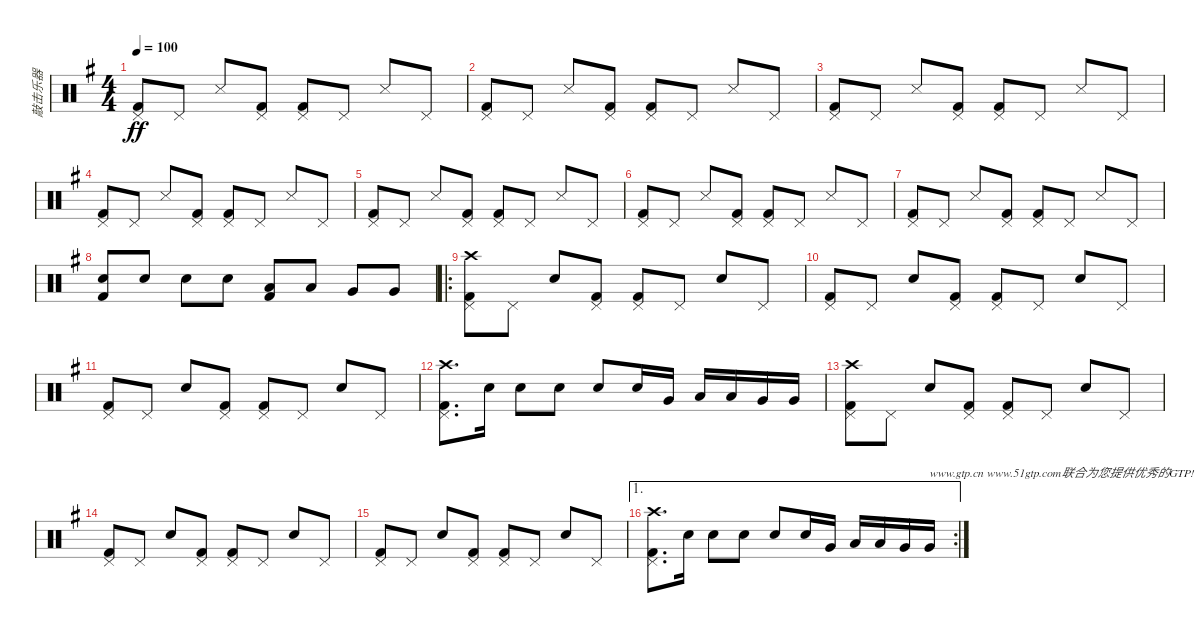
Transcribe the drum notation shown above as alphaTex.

\track ("敲击乐器" "敲击乐器") {instrument percussion}
\staff {score}
\articulation defaults
\ts (4 4)
\tempo 100
\clef neutral
\ks g
("Pedal Hi-Hat (hit)" "Kick (hit) 2").8{dy ff} "Pedal Hi-Hat (hit)".8 "Metronome (hit)".8 ("Pedal Hi-Hat (hit)" "Kick (hit) 2").8 ("Pedal Hi-Hat (hit)" "Kick (hit) 2").8 "Pedal Hi-Hat (hit)".8 "Metronome (hit)".8 "Pedal Hi-Hat (hit)".8 |
("Pedal Hi-Hat (hit)" "Kick (hit) 2").8 "Pedal Hi-Hat (hit)".8 "Metronome (hit)".8 ("Pedal Hi-Hat (hit)" "Kick (hit) 2").8 ("Pedal Hi-Hat (hit)" "Kick (hit) 2").8 "Pedal Hi-Hat (hit)".8 "Metronome (hit)".8 "Pedal Hi-Hat (hit)".8 |
("Pedal Hi-Hat (hit)" "Kick (hit) 2").8 "Pedal Hi-Hat (hit)".8 "Metronome (hit)".8 ("Pedal Hi-Hat (hit)" "Kick (hit) 2").8 ("Pedal Hi-Hat (hit)" "Kick (hit) 2").8 "Pedal Hi-Hat (hit)".8 "Metronome (hit)".8 "Pedal Hi-Hat (hit)".8 |
("Pedal Hi-Hat (hit)" "Kick (hit) 2").8 "Pedal Hi-Hat (hit)".8 "Metronome (hit)".8 ("Pedal Hi-Hat (hit)" "Kick (hit) 2").8 ("Pedal Hi-Hat (hit)" "Kick (hit) 2").8 "Pedal Hi-Hat (hit)".8 "Metronome (hit)".8 "Pedal Hi-Hat (hit)".8 |
("Pedal Hi-Hat (hit)" "Kick (hit) 2").8 "Pedal Hi-Hat (hit)".8 "Metronome (hit)".8 ("Pedal Hi-Hat (hit)" "Kick (hit) 2").8 ("Pedal Hi-Hat (hit)" "Kick (hit) 2").8 "Pedal Hi-Hat (hit)".8 "Metronome (hit)".8 "Pedal Hi-Hat (hit)".8 |
("Pedal Hi-Hat (hit)" "Kick (hit) 2").8 "Pedal Hi-Hat (hit)".8 "Metronome (hit)".8 ("Pedal Hi-Hat (hit)" "Kick (hit) 2").8 ("Pedal Hi-Hat (hit)" "Kick (hit) 2").8 "Pedal Hi-Hat (hit)".8 "Metronome (hit)".8 "Pedal Hi-Hat (hit)".8 |
("Pedal Hi-Hat (hit)" "Kick (hit) 2").8 "Pedal Hi-Hat (hit)".8 "Metronome (hit)".8 ("Pedal Hi-Hat (hit)" "Kick (hit) 2").8 ("Pedal Hi-Hat (hit)" "Kick (hit) 2").8 "Pedal Hi-Hat (hit)".8 "Metronome (hit)".8 "Pedal Hi-Hat (hit)".8 |
("Snare (hit) 2" "Kick (hit) 2").8 "Snare (hit) 2".8 "Snare (hit) 2".8 "Snare (hit) 2".8 ("Low Floor Tom (hit)" "Kick (hit) 2").8 "Low Floor Tom (hit)".8 "Very Low Tom (hit)".8 "Very Low Tom (hit)".8 |
\ro
("Crash high (hit)" "Pedal Hi-Hat (hit)" "Kick (hit) 2").8 "Pedal Hi-Hat (hit)".8 "Snare (hit) 2".8 ("Pedal Hi-Hat (hit)" "Kick (hit) 2").8 ("Pedal Hi-Hat (hit)" "Kick (hit) 2").8 "Pedal Hi-Hat (hit)".8 "Snare (hit) 2".8 "Pedal Hi-Hat (hit)".8 |
("Pedal Hi-Hat (hit)" "Kick (hit) 2").8 "Pedal Hi-Hat (hit)".8 "Snare (hit) 2".8 ("Pedal Hi-Hat (hit)" "Kick (hit) 2").8 ("Pedal Hi-Hat (hit)" "Kick (hit) 2").8 "Pedal Hi-Hat (hit)".8 "Snare (hit) 2".8 "Pedal Hi-Hat (hit)".8 |
("Pedal Hi-Hat (hit)" "Kick (hit) 2").8 "Pedal Hi-Hat (hit)".8 "Snare (hit) 2".8 ("Pedal Hi-Hat (hit)" "Kick (hit) 2").8 ("Pedal Hi-Hat (hit)" "Kick (hit) 2").8 "Pedal Hi-Hat (hit)".8 "Snare (hit) 2".8 "Pedal Hi-Hat (hit)".8 |
("Crash high (hit)" "Pedal Hi-Hat (hit)" "Kick (hit) 2").8{d} "Snare (hit) 2".16 "Snare (hit) 2".8 "Snare (hit) 2".8 "Snare (hit) 2".8 "Snare (hit) 2".16 "Very Low Tom (hit)".16 "Low Floor Tom (hit)".16 "Low Floor Tom (hit)".16 "Very Low Tom (hit)".16 "Very Low Tom (hit)".16 |
("Crash high (hit)" "Pedal Hi-Hat (hit)" "Kick (hit) 2").8 "Pedal Hi-Hat (hit)".8 "Snare (hit) 2".8 ("Pedal Hi-Hat (hit)" "Kick (hit) 2").8 ("Pedal Hi-Hat (hit)" "Kick (hit) 2").8 "Pedal Hi-Hat (hit)".8 "Snare (hit) 2".8 "Pedal Hi-Hat (hit)".8 |
("Pedal Hi-Hat (hit)" "Kick (hit) 2").8 "Pedal Hi-Hat (hit)".8 "Snare (hit) 2".8 ("Pedal Hi-Hat (hit)" "Kick (hit) 2").8 ("Pedal Hi-Hat (hit)" "Kick (hit) 2").8 "Pedal Hi-Hat (hit)".8 "Snare (hit) 2".8 "Pedal Hi-Hat (hit)".8 |
("Pedal Hi-Hat (hit)" "Kick (hit) 2").8 "Pedal Hi-Hat (hit)".8 "Snare (hit) 2".8 ("Pedal Hi-Hat (hit)" "Kick (hit) 2").8 ("Pedal Hi-Hat (hit)" "Kick (hit) 2").8 "Pedal Hi-Hat (hit)".8 "Snare (hit) 2".8 "Pedal Hi-Hat (hit)".8 |
\ae 1
\rc 2
("Crash high (hit)" "Pedal Hi-Hat (hit)" "Kick (hit) 2").8{d} "Snare (hit) 2".16 "Snare (hit) 2".8 "Snare (hit) 2".8 "Snare (hit) 2".8 "Snare (hit) 2".16 "Very Low Tom (hit)".16 "Low Floor Tom (hit)".16 "Low Floor Tom (hit)".16 "Very Low Tom (hit)".16 "Very Low Tom (hit)".16{txt "www.gtp.cn www.51gtp.com联合为您提供优秀的GTP!"}
